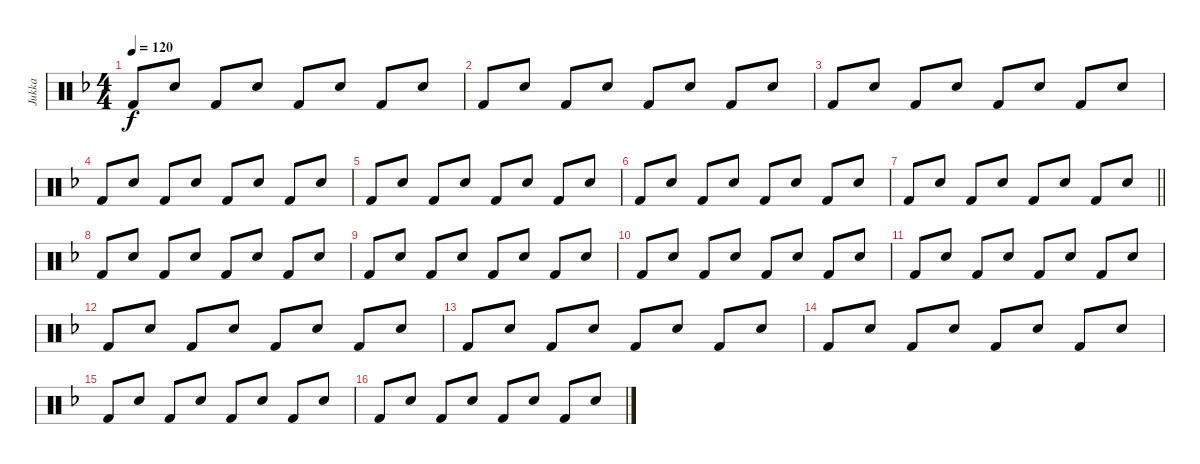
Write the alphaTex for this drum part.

\track ("Jukka" "Jukka") {instrument percussion}
\staff {score}
\articulation defaults
\ts (4 4)
\tempo 120
\clef neutral
\ks f "Kick (hit) 2".8{dy f} "Electric Snare (hit)".8 "Kick (hit) 2".8 "Electric Snare (hit)".8 "Kick (hit) 2".8 "Electric Snare (hit)".8 "Kick (hit) 2".8 "Electric Snare (hit)".8
|
"Kick (hit) 2".8 "Electric Snare (hit)".8 "Kick (hit) 2".8 "Electric Snare (hit)".8 "Kick (hit) 2".8 "Electric Snare (hit)".8 "Kick (hit) 2".8 "Electric Snare (hit)".8 |
"Kick (hit) 2".8 "Electric Snare (hit)".8 "Kick (hit) 2".8 "Electric Snare (hit)".8 "Kick (hit) 2".8 "Electric Snare (hit)".8 "Kick (hit) 2".8 "Electric Snare (hit)".8 |
"Kick (hit) 2".8 "Electric Snare (hit)".8 "Kick (hit) 2".8 "Electric Snare (hit)".8 "Kick (hit) 2".8 "Electric Snare (hit)".8 "Kick (hit) 2".8 "Electric Snare (hit)".8 |
"Kick (hit) 2".8 "Electric Snare (hit)".8 "Kick (hit) 2".8 "Electric Snare (hit)".8 "Kick (hit) 2".8 "Electric Snare (hit)".8 "Kick (hit) 2".8 "Electric Snare (hit)".8 |
"Kick (hit) 2".8 "Electric Snare (hit)".8 "Kick (hit) 2".8 "Electric Snare (hit)".8 "Kick (hit) 2".8 "Electric Snare (hit)".8 "Kick (hit) 2".8 "Electric Snare (hit)".8 |
\barLineRight lightlight "Kick (hit) 2".8 "Electric Snare (hit)".8 "Kick (hit) 2".8 "Electric Snare (hit)".8 "Kick (hit) 2".8 "Electric Snare (hit)".8 "Kick (hit) 2".8 "Electric Snare (hit)".8
|
\section ("" "")
"Kick (hit) 2".8 "Electric Snare (hit)".8 "Kick (hit) 2".8 "Electric Snare (hit)".8 "Kick (hit) 2".8 "Electric Snare (hit)".8 "Kick (hit) 2".8 "Electric Snare (hit)".8 |
"Kick (hit) 2".8 "Electric Snare (hit)".8 "Kick (hit) 2".8 "Electric Snare (hit)".8 "Kick (hit) 2".8 "Electric Snare (hit)".8 "Kick (hit) 2".8 "Electric Snare (hit)".8 |
"Kick (hit) 2".8 "Electric Snare (hit)".8 "Kick (hit) 2".8 "Electric Snare (hit)".8 "Kick (hit) 2".8 "Electric Snare (hit)".8 "Kick (hit) 2".8 "Electric Snare (hit)".8 |
"Kick (hit) 2".8 "Electric Snare (hit)".8 "Kick (hit) 2".8 "Electric Snare (hit)".8 "Kick (hit) 2".8 "Electric Snare (hit)".8 "Kick (hit) 2".8 "Electric Snare (hit)".8 |
"Kick (hit) 2".8 "Electric Snare (hit)".8 "Kick (hit) 2".8 "Electric Snare (hit)".8 "Kick (hit) 2".8 "Electric Snare (hit)".8 "Kick (hit) 2".8 "Electric Snare (hit)".8 |
"Kick (hit) 2".8 "Electric Snare (hit)".8 "Kick (hit) 2".8 "Electric Snare (hit)".8 "Kick (hit) 2".8 "Electric Snare (hit)".8 "Kick (hit) 2".8 "Electric Snare (hit)".8 |
"Kick (hit) 2".8 "Electric Snare (hit)".8 "Kick (hit) 2".8 "Electric Snare (hit)".8 "Kick (hit) 2".8 "Electric Snare (hit)".8 "Kick (hit) 2".8 "Electric Snare (hit)".8 |
"Kick (hit) 2".8 "Electric Snare (hit)".8 "Kick (hit) 2".8 "Electric Snare (hit)".8 "Kick (hit) 2".8 "Electric Snare (hit)".8 "Kick (hit) 2".8 "Electric Snare (hit)".8 |
"Kick (hit) 2".8 "Electric Snare (hit)".8 "Kick (hit) 2".8 "Electric Snare (hit)".8 "Kick (hit) 2".8 "Electric Snare (hit)".8 "Kick (hit) 2".8 "Electric Snare (hit)".8
